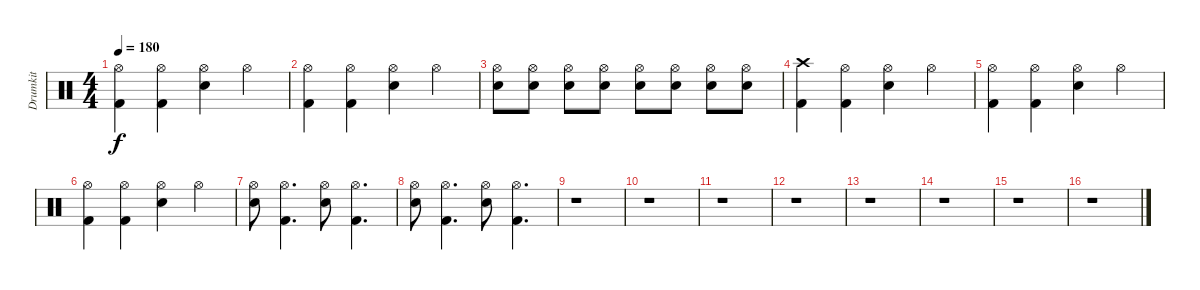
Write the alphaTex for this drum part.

\track ("Drumkit" "Drumkit") {instrument percussion}
\staff {score}
\articulation defaults
\ts (4 4)
\tempo 180
\clef neutral
\ks c
("Kick (hit) 2" "Hi-Hat (open)").4{dy f} ("Kick (hit) 2" "Hi-Hat (open)").4 ("Snare (hit) 2" "Hi-Hat (open)").4 "Hi-Hat (open)".4 |
("Kick (hit) 2" "Hi-Hat (open)").4 ("Kick (hit) 2" "Hi-Hat (open)").4 ("Snare (hit) 2" "Hi-Hat (open)").4 "Hi-Hat (open)".4 |
("Snare (hit) 2" "Hi-Hat (open)").8 ("Snare (hit) 2" "Hi-Hat (open)").8 ("Snare (hit) 2" "Hi-Hat (open)").8 ("Snare (hit) 2" "Hi-Hat (open)").8 ("Snare (hit) 2" "Hi-Hat (open)").8 ("Snare (hit) 2" "Hi-Hat (open)").8 ("Snare (hit) 2" "Hi-Hat (open)").8 ("Snare (hit) 2" "Hi-Hat (open)").8 |
("Kick (hit) 2" "Crash high (hit)").4 ("Kick (hit) 2" "Hi-Hat (open)").4 ("Snare (hit) 2" "Hi-Hat (open)").4 "Hi-Hat (open)".4 |
("Kick (hit) 2" "Hi-Hat (open)").4 ("Kick (hit) 2" "Hi-Hat (open)").4 ("Snare (hit) 2" "Hi-Hat (open)").4 "Hi-Hat (open)".4 |
("Kick (hit) 2" "Hi-Hat (open)").4 ("Kick (hit) 2" "Hi-Hat (open)").4 ("Snare (hit) 2" "Hi-Hat (open)").4 "Hi-Hat (open)".4 |
("Snare (hit) 2" "Hi-Hat (open)").8 ("Kick (hit) 2" "Hi-Hat (open)").4{d} ("Snare (hit) 2" "Hi-Hat (open)").8 ("Kick (hit) 2" "Hi-Hat (open)").4{d} |
("Snare (hit) 2" "Hi-Hat (open)").8 ("Kick (hit) 2" "Hi-Hat (open)").4{d} ("Snare (hit) 2" "Hi-Hat (open)").8 ("Kick (hit) 2" "Hi-Hat (open)").4{d} |
r.1 |
r.1 |
r.1 |
r.1 |
r.1 |
r.1 |
r.1 |
r.1
